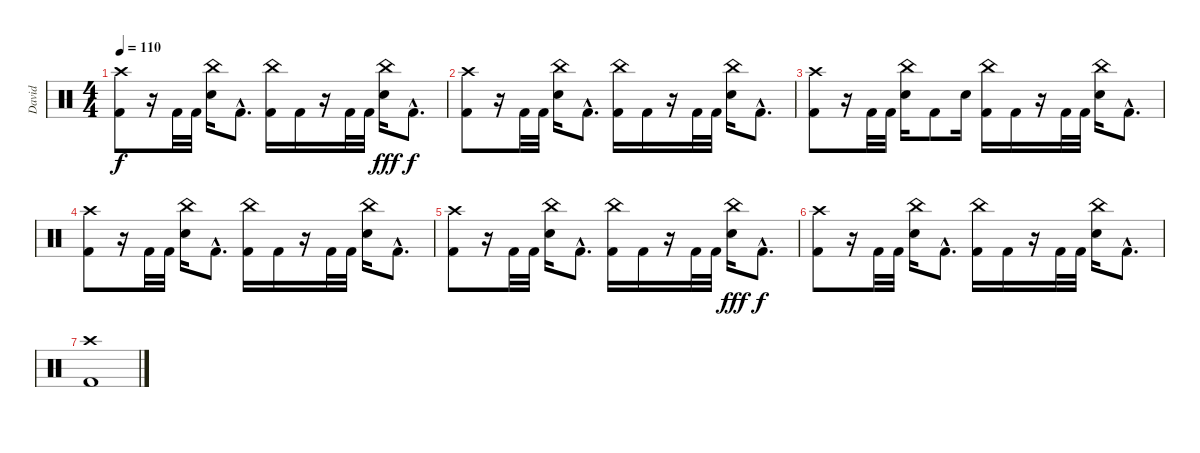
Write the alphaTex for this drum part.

\track ("David" "David") {instrument percussion}
\staff {score}
\articulation defaults
\ts (4 4)
\tempo 110
\clef neutral
\ks c
("Crash high (hit)" "Kick (hit) 2").8{dy f} r.16 "Kick (hit) 2".32 "Kick (hit) 2".32 ("China (hit)" "Electric Snare (hit)").16 "Kick (hit) 2"{hac}.8{d} ("China (hit)" "Kick (hit) 2").16 "Kick (hit) 2".16 r.16 "Kick (hit) 2".32 "Kick (hit) 2".32 ("China (hit)" "Electric Snare (hit)").16{dy fff} "Kick (hit) 2"{hac}.8{d dy f} |
("Crash high (hit)" "Kick (hit) 2").8 r.16 "Kick (hit) 2".32 "Kick (hit) 2".32 ("China (hit)" "Electric Snare (hit)").16 "Kick (hit) 2"{hac}.8{d} ("China (hit)" "Kick (hit) 2").16 "Kick (hit) 2".16 r.16 "Kick (hit) 2".32 "Kick (hit) 2".32 ("China (hit)" "Electric Snare (hit)").16 "Kick (hit) 2"{hac}.8{d} |
("Crash high (hit)" "Kick (hit) 2").8 r.16 "Kick (hit) 2".32 "Kick (hit) 2".32 ("China (hit)" "Electric Snare (hit)").16 "Kick (hit) 2".8 "Electric Snare (hit)".16 ("China (hit)" "Kick (hit) 2").16 "Kick (hit) 2".16 r.16 "Kick (hit) 2".32 "Kick (hit) 2".32 ("China (hit)" "Electric Snare (hit)").16 "Kick (hit) 2"{hac}.8{d} |
("Crash high (hit)" "Kick (hit) 2").8 r.16 "Kick (hit) 2".32 "Kick (hit) 2".32 ("China (hit)" "Electric Snare (hit)").16 "Kick (hit) 2"{hac}.8{d} ("China (hit)" "Kick (hit) 2").16 "Kick (hit) 2".16 r.16 "Kick (hit) 2".32 "Kick (hit) 2".32 ("China (hit)" "Electric Snare (hit)").16 "Kick (hit) 2"{hac}.8{d} |
("Crash high (hit)" "Kick (hit) 2").8 r.16 "Kick (hit) 2".32 "Kick (hit) 2".32 ("China (hit)" "Electric Snare (hit)").16 "Kick (hit) 2"{hac}.8{d} ("China (hit)" "Kick (hit) 2").16 "Kick (hit) 2".16 r.16 "Kick (hit) 2".32 "Kick (hit) 2".32 ("China (hit)" "Electric Snare (hit)").16{dy fff} "Kick (hit) 2"{hac}.8{d dy f} |
("Crash high (hit)" "Kick (hit) 2").8 r.16 "Kick (hit) 2".32 "Kick (hit) 2".32 ("China (hit)" "Electric Snare (hit)").16 "Kick (hit) 2"{hac}.8{d} ("China (hit)" "Kick (hit) 2").16 "Kick (hit) 2".16 r.16 "Kick (hit) 2".32 "Kick (hit) 2".32 ("China (hit)" "Electric Snare (hit)").16 "Kick (hit) 2"{hac}.8{d} |
("Crash high (hit)" "Kick (hit) 2").1
